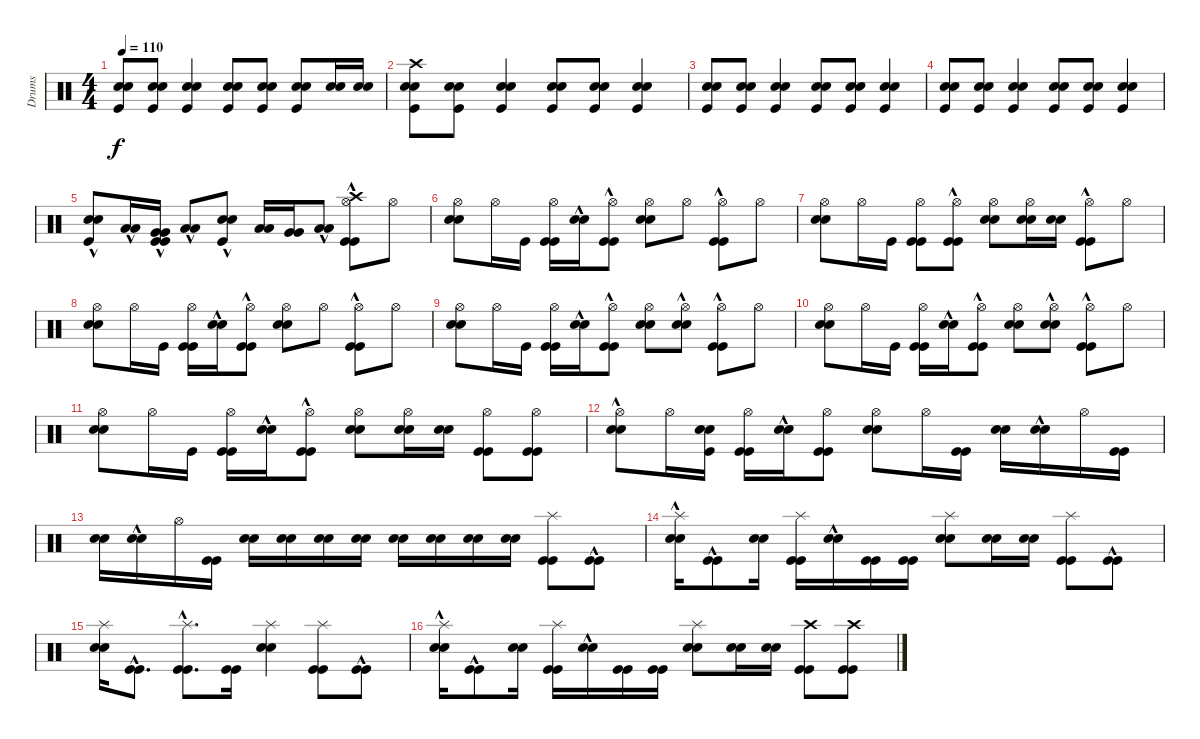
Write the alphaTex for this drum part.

\track ("Drums" "Drums") {instrument percussion}
\staff {score}
\articulation defaults
\ts (4 4)
\tempo 110
\clef neutral
\ks c
("Kick (hit)" "Snare (hit) 2" "Snare (hit) 2").8{dy f} ("Kick (hit)" "Snare (hit) 2" "Snare (hit) 2").8 ("Kick (hit)" "Snare (hit) 2" "Snare (hit) 2").4 ("Kick (hit)" "Snare (hit) 2" "Snare (hit) 2").8 ("Kick (hit)" "Snare (hit) 2" "Snare (hit) 2").8 ("Kick (hit)" "Snare (hit) 2" "Snare (hit) 2").8 ("Snare (hit) 2" "Snare (hit) 2").16 ("Snare (hit) 2" "Snare (hit) 2").16 |
("Kick (hit)" "Snare (hit) 2" "Snare (hit) 2" "Crash high (hit)").8 ("Kick (hit)" "Snare (hit) 2" "Snare (hit) 2").8 ("Kick (hit)" "Snare (hit) 2" "Snare (hit) 2").4 ("Kick (hit)" "Snare (hit) 2" "Snare (hit) 2").8 ("Kick (hit)" "Snare (hit) 2" "Snare (hit) 2").8 ("Kick (hit)" "Snare (hit) 2" "Snare (hit) 2").4 |
("Kick (hit)" "Snare (hit) 2" "Snare (hit) 2").8 ("Kick (hit)" "Snare (hit) 2" "Snare (hit) 2").8 ("Kick (hit)" "Snare (hit) 2" "Snare (hit) 2").4 ("Kick (hit)" "Snare (hit) 2" "Snare (hit) 2").8 ("Kick (hit)" "Snare (hit) 2" "Snare (hit) 2").8 ("Kick (hit)" "Snare (hit) 2" "Snare (hit) 2").4 |
("Kick (hit)" "Snare (hit) 2" "Snare (hit) 2").8 ("Kick (hit)" "Snare (hit) 2" "Snare (hit) 2").8 ("Kick (hit)" "Snare (hit) 2" "Snare (hit) 2").4 ("Kick (hit)" "Snare (hit) 2" "Snare (hit) 2").8 ("Kick (hit)" "Snare (hit) 2" "Snare (hit) 2").8 ("Kick (hit)" "Snare (hit) 2" "Snare (hit) 2").4 |
("Kick (hit)"{hac} "Snare (hit) 2"{hac} "Snare (hit) 2"{hac}).8 ("Low Tom (hit)"{hac} "Low Tom (hit)"{hac}).16 ("Kick (hit)"{hac} "Kick (hit)"{hac} "Very Low Tom (hit)"{hac} "Very Low Tom (hit)"{hac}).16 ("Low Floor Tom (hit)"{hac} "Low Floor Tom (hit)"{hac}).8 ("Kick (hit)"{hac} "Snare (hit) 2" "Snare (hit) 2").8 ("Low Tom (hit)" "Low Tom (hit)").16 ("Very Low Tom (hit)" "Very Low Tom (hit)").16 ("Low Floor Tom (hit)"{hac} "Low Floor Tom (hit)"{hac}).8 ("Kick (hit)"{hac} "Kick (hit)"{hac} "Hi-Hat (open)" "Crash high (hit)").8 "Hi-Hat (open)".8 |
("Snare (hit) 2" "Snare (hit) 2" "Hi-Hat (open)").8 "Hi-Hat (open)".16 "Kick (hit)".16 ("Kick (hit)" "Kick (hit)" "Hi-Hat (open)").16 ("Snare (hit) 2"{hac} "Snare (hit) 2"{hac}).16 ("Kick (hit)"{hac} "Kick (hit)"{hac} "Hi-Hat (open)").8 ("Snare (hit) 2" "Snare (hit) 2" "Hi-Hat (open)").8 "Hi-Hat (open)".8 ("Kick (hit)"{hac} "Kick (hit)"{hac} "Hi-Hat (open)").8 "Hi-Hat (open)".8 |
("Snare (hit) 2" "Snare (hit) 2" "Hi-Hat (open)").8 "Hi-Hat (open)".16 "Kick (hit)".16 ("Kick (hit)" "Kick (hit)" "Hi-Hat (open)").8 ("Kick (hit)"{hac} "Kick (hit)"{hac} "Hi-Hat (open)").8 ("Snare (hit) 2" "Snare (hit) 2" "Hi-Hat (open)").8 ("Snare (hit) 2" "Snare (hit) 2" "Hi-Hat (open)").16 ("Snare (hit) 2" "Snare (hit) 2").16 ("Kick (hit)"{hac} "Kick (hit)"{hac} "Hi-Hat (open)").8 "Hi-Hat (open)".8 |
("Snare (hit) 2" "Snare (hit) 2" "Hi-Hat (open)").8 "Hi-Hat (open)".16 "Kick (hit)".16 ("Kick (hit)" "Kick (hit)" "Hi-Hat (open)").16 ("Snare (hit) 2"{hac} "Snare (hit) 2"{hac}).16 ("Kick (hit)"{hac} "Kick (hit)"{hac} "Hi-Hat (open)").8 ("Snare (hit) 2" "Snare (hit) 2" "Hi-Hat (open)").8 "Hi-Hat (open)".8 ("Kick (hit)"{hac} "Kick (hit)"{hac} "Hi-Hat (open)").8 "Hi-Hat (open)".8 |
("Snare (hit) 2" "Snare (hit) 2" "Hi-Hat (open)").8 "Hi-Hat (open)".16 "Kick (hit)".16 ("Kick (hit)" "Kick (hit)" "Hi-Hat (open)").16 ("Snare (hit) 2"{hac} "Snare (hit) 2"{hac}).16 ("Kick (hit)"{hac} "Kick (hit)"{hac} "Hi-Hat (open)").8 ("Snare (hit) 2" "Snare (hit) 2" "Hi-Hat (open)").8 ("Snare (hit) 2"{hac} "Snare (hit) 2"{hac} "Hi-Hat (open)").8 ("Kick (hit)"{hac} "Kick (hit)"{hac} "Hi-Hat (open)").8 "Hi-Hat (open)".8 |
("Snare (hit) 2" "Snare (hit) 2" "Hi-Hat (open)").8 "Hi-Hat (open)".16 "Kick (hit)".16 ("Kick (hit)" "Kick (hit)" "Hi-Hat (open)").16 ("Snare (hit) 2"{hac} "Snare (hit) 2"{hac}).16 ("Kick (hit)"{hac} "Kick (hit)"{hac} "Hi-Hat (open)").8 ("Snare (hit) 2" "Snare (hit) 2" "Hi-Hat (open)").8 ("Snare (hit) 2"{hac} "Snare (hit) 2"{hac} "Hi-Hat (open)").8 ("Kick (hit)"{hac} "Kick (hit)"{hac} "Hi-Hat (open)").8 "Hi-Hat (open)".8 |
("Snare (hit) 2" "Snare (hit) 2" "Hi-Hat (open)").8 "Hi-Hat (open)".16 "Kick (hit)".16 ("Kick (hit)" "Kick (hit)" "Hi-Hat (open)").16 ("Snare (hit) 2"{hac} "Snare (hit) 2"{hac}).16 ("Kick (hit)"{hac} "Kick (hit)"{hac} "Hi-Hat (open)").8 ("Snare (hit) 2" "Snare (hit) 2" "Hi-Hat (open)").8 ("Snare (hit) 2" "Snare (hit) 2" "Hi-Hat (open)").16 ("Snare (hit) 2" "Snare (hit) 2").16 ("Kick (hit)" "Kick (hit)" "Hi-Hat (open)").8 ("Kick (hit)" "Kick (hit)" "Hi-Hat (open)").8 |
("Snare (hit) 2"{hac} "Snare (hit) 2"{hac} "Hi-Hat (open)").8 "Hi-Hat (open)".16 ("Kick (hit)" "Snare (hit) 2" "Snare (hit) 2").16 ("Kick (hit)" "Kick (hit)" "Hi-Hat (open)").16 ("Snare (hit) 2"{hac} "Snare (hit) 2"{hac}).16 ("Kick (hit)" "Kick (hit)" "Hi-Hat (open)").8 ("Snare (hit) 2" "Snare (hit) 2" "Hi-Hat (open)").8 "Hi-Hat (open)".16 ("Kick (hit)" "Kick (hit)").16 ("Snare (hit) 2" "Snare (hit) 2").16 ("Snare (hit) 2"{hac} "Snare (hit) 2"{hac}).16 "Hi-Hat (open)".16 ("Kick (hit)" "Kick (hit)").16 |
("Snare (hit) 2" "Snare (hit) 2").16 ("Snare (hit) 2"{hac} "Snare (hit) 2"{hac}).16 "Hi-Hat (open)".16 ("Kick (hit)" "Kick (hit)").16 ("Snare (hit) 2" "Snare (hit) 2").16 ("Snare (hit) 2" "Snare (hit) 2").16 ("Snare (hit) 2" "Snare (hit) 2").16 ("Snare (hit) 2" "Snare (hit) 2").16 ("Snare (hit) 2" "Snare (hit) 2").16 ("Snare (hit) 2" "Snare (hit) 2").16 ("Snare (hit) 2" "Snare (hit) 2").16 ("Snare (hit) 2" "Snare (hit) 2").16 ("Kick (hit)" "Kick (hit)" "Splash (hit)").8 ("Kick (hit)"{hac} "Kick (hit)"{hac}).8 |
("Snare (hit) 2"{hac} "Snare (hit) 2"{hac} "Splash (hit)").16 ("Kick (hit)"{hac} "Kick (hit)"{hac}).8 ("Snare (hit) 2" "Snare (hit) 2").16 ("Kick (hit)" "Kick (hit)" "Splash (hit)").16 ("Snare (hit) 2"{hac} "Snare (hit) 2"{hac}).16 ("Kick (hit)" "Kick (hit)").16 ("Kick (hit)" "Kick (hit)").16 ("Snare (hit) 2" "Snare (hit) 2" "Splash (hit)").8 ("Snare (hit) 2" "Snare (hit) 2").16 ("Snare (hit) 2" "Snare (hit) 2").16 ("Kick (hit)" "Kick (hit)" "Splash (hit)").8 ("Kick (hit)"{hac} "Kick (hit)"{hac}).8 |
("Snare (hit) 2" "Snare (hit) 2" "Splash (hit)").16 ("Kick (hit)"{hac} "Kick (hit)"{hac}).8{d} ("Kick (hit)"{hac} "Kick (hit)"{hac} "Splash (hit)").8{d} ("Kick (hit)" "Kick (hit)").16 ("Snare (hit) 2" "Snare (hit) 2" "Splash (hit)").4 ("Kick (hit)" "Kick (hit)" "Splash (hit)").8 ("Kick (hit)"{hac} "Kick (hit)"{hac}).8 |
("Snare (hit) 2"{hac} "Snare (hit) 2"{hac} "Splash (hit)").16 ("Kick (hit)"{hac} "Kick (hit)"{hac}).8 ("Snare (hit) 2" "Snare (hit) 2").16 ("Kick (hit)" "Kick (hit)" "Splash (hit)").16 ("Snare (hit) 2"{hac} "Snare (hit) 2"{hac}).16 ("Kick (hit)" "Kick (hit)").16 ("Kick (hit)" "Kick (hit)").16 ("Snare (hit) 2" "Snare (hit) 2" "Splash (hit)").8 ("Snare (hit) 2" "Snare (hit) 2").16 ("Snare (hit) 2" "Snare (hit) 2").16 ("Kick (hit)" "Kick (hit)" "Crash high (hit)").8 ("Kick (hit)" "Kick (hit)" "Crash high (hit)").8
